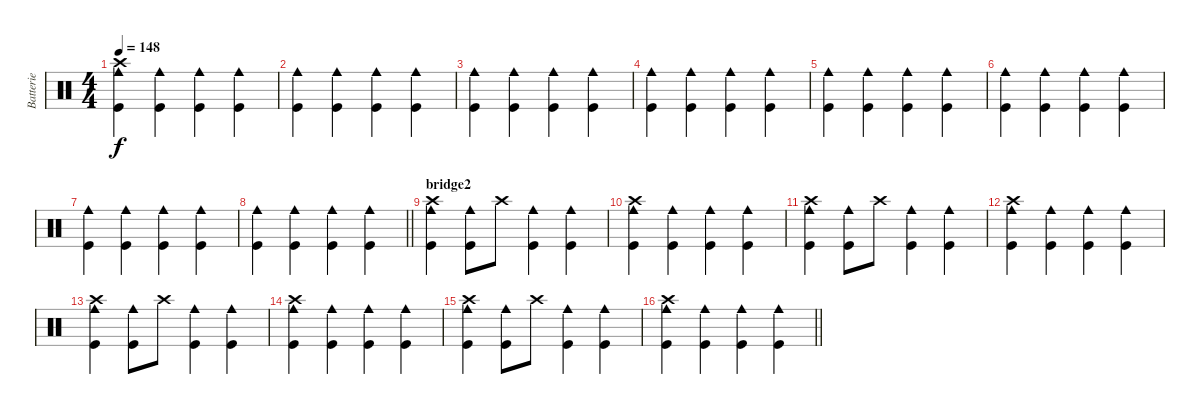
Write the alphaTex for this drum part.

\track ("Batterie" "Batterie") {instrument percussion}
\staff {score}
\articulation defaults
\ts (4 4)
\tempo 148
\clef neutral
\ks c
("Crash high (hit)" "Cowbell medium (hit)" "Kick (hit)").4{dy f} ("Cowbell medium (hit)" "Kick (hit)").4 ("Cowbell medium (hit)" "Kick (hit)").4 ("Cowbell medium (hit)" "Kick (hit)").4 |
("Cowbell medium (hit)" "Kick (hit)").4 ("Cowbell medium (hit)" "Kick (hit)").4 ("Cowbell medium (hit)" "Kick (hit)").4 ("Cowbell medium (hit)" "Kick (hit)").4 |
("Cowbell medium (hit)" "Kick (hit)").4 ("Cowbell medium (hit)" "Kick (hit)").4 ("Cowbell medium (hit)" "Kick (hit)").4 ("Cowbell medium (hit)" "Kick (hit)").4 |
("Cowbell medium (hit)" "Kick (hit)").4 ("Cowbell medium (hit)" "Kick (hit)").4 ("Cowbell medium (hit)" "Kick (hit)").4 ("Cowbell medium (hit)" "Kick (hit)").4 |
("Cowbell medium (hit)" "Kick (hit)").4 ("Cowbell medium (hit)" "Kick (hit)").4 ("Cowbell medium (hit)" "Kick (hit)").4 ("Cowbell medium (hit)" "Kick (hit)").4 |
("Cowbell medium (hit)" "Kick (hit)").4 ("Cowbell medium (hit)" "Kick (hit)").4 ("Cowbell medium (hit)" "Kick (hit)").4 ("Cowbell medium (hit)" "Kick (hit)").4 |
("Cowbell medium (hit)" "Kick (hit)").4 ("Cowbell medium (hit)" "Kick (hit)").4 ("Cowbell medium (hit)" "Kick (hit)").4 ("Cowbell medium (hit)" "Kick (hit)").4 |
\barLineRight lightlight
("Cowbell medium (hit)" "Kick (hit)").4 ("Cowbell medium (hit)" "Kick (hit)").4 ("Cowbell medium (hit)" "Kick (hit)").4 ("Cowbell medium (hit)" "Kick (hit)").4 |
\section ("" "bridge2")
("Crash high (hit)" "Cowbell medium (hit)" "Kick (hit)").4 ("Cowbell medium (hit)" "Kick (hit)").8 "Crash high (hit)".8 ("Cowbell medium (hit)" "Kick (hit)").4 ("Cowbell medium (hit)" "Kick (hit)").4 |
("Crash high (hit)" "Cowbell medium (hit)" "Kick (hit)").4 ("Cowbell medium (hit)" "Kick (hit)").4 ("Cowbell medium (hit)" "Kick (hit)").4 ("Cowbell medium (hit)" "Kick (hit)").4 |
("Crash high (hit)" "Cowbell medium (hit)" "Kick (hit)").4 ("Cowbell medium (hit)" "Kick (hit)").8 "Crash high (hit)".8 ("Cowbell medium (hit)" "Kick (hit)").4 ("Cowbell medium (hit)" "Kick (hit)").4 |
("Crash high (hit)" "Cowbell medium (hit)" "Kick (hit)").4 ("Cowbell medium (hit)" "Kick (hit)").4 ("Cowbell medium (hit)" "Kick (hit)").4 ("Cowbell medium (hit)" "Kick (hit)").4 |
("Crash high (hit)" "Cowbell medium (hit)" "Kick (hit)").4 ("Cowbell medium (hit)" "Kick (hit)").8 "Crash high (hit)".8 ("Cowbell medium (hit)" "Kick (hit)").4 ("Cowbell medium (hit)" "Kick (hit)").4 |
("Crash high (hit)" "Cowbell medium (hit)" "Kick (hit)").4 ("Cowbell medium (hit)" "Kick (hit)").4 ("Cowbell medium (hit)" "Kick (hit)").4 ("Cowbell medium (hit)" "Kick (hit)").4 |
("Crash high (hit)" "Cowbell medium (hit)" "Kick (hit)").4 ("Cowbell medium (hit)" "Kick (hit)").8 "Crash high (hit)".8 ("Cowbell medium (hit)" "Kick (hit)").4 ("Cowbell medium (hit)" "Kick (hit)").4 |
\barLineRight lightlight
("Crash high (hit)" "Cowbell medium (hit)" "Kick (hit)").4 ("Cowbell medium (hit)" "Kick (hit)").4 ("Cowbell medium (hit)" "Kick (hit)").4 ("Cowbell medium (hit)" "Kick (hit)").4
